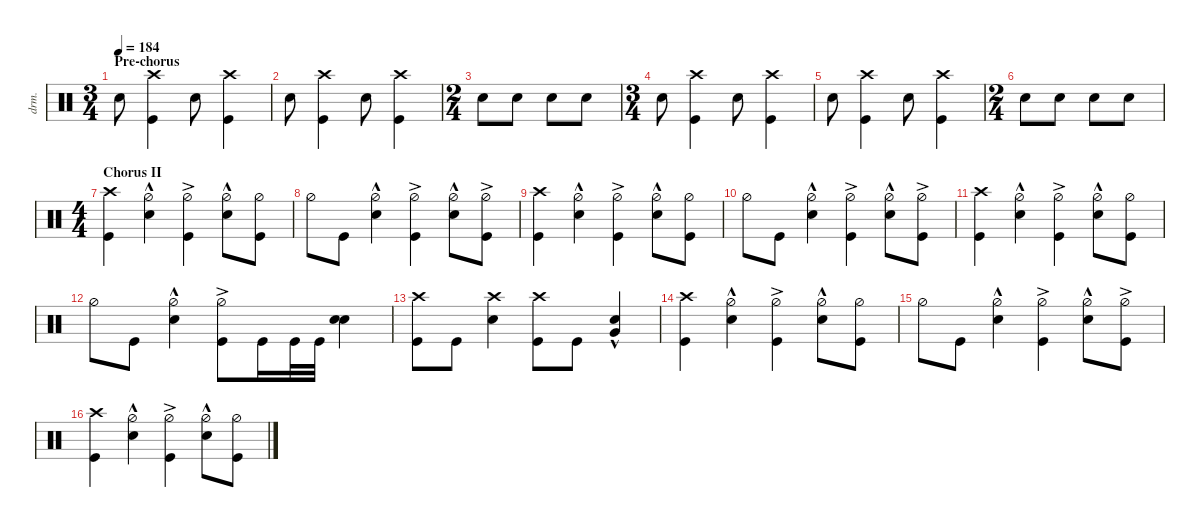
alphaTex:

\defaultSystemsLayout 4
\hideDynamics
\bracketExtendMode nobrackets
\otherSystemsTrackNameOrientation horizontal
\track ("Drums" "drm.") {defaultSystemsLayout 4 multiBarRest instrument percussion}
\staff {score}
\articulation defaults
\ts (3 4)
\section ("" "Pre-chorus")
\tempo 184
\clef neutral
\ks c "Snare (hit) 2".8{dy f}
("Crash high (hit)" "Kick (hit)").4 "Snare (hit) 2".8 ("Crash high (hit)" "Kick (hit)").4 |
"Snare (hit) 2".8 ("Crash high (hit)" "Kick (hit)").4 "Snare (hit) 2".8 ("Crash high (hit)" "Kick (hit)").4 |
\ts (2 4)
\beaming (8 2 2 2 2)
"Snare (hit) 2".8 "Snare (hit) 2".8 "Snare (hit) 2".8 "Snare (hit) 2".8 |
\ts (3 4)
\beaming (8 2 2 2 2)
"Snare (hit) 2".8 ("Crash high (hit)" "Kick (hit)").4 "Snare (hit) 2".8 ("Crash high (hit)" "Kick (hit)").4 |
"Snare (hit) 2".8 ("Crash high (hit)" "Kick (hit)").4 "Snare (hit) 2".8 ("Crash high (hit)" "Kick (hit)").4 |
\ts (2 4)
\beaming (8 2 2 2 2)
"Snare (hit) 2".8 "Snare (hit) 2".8 "Snare (hit) 2".8 "Snare (hit) 2".8 |
\ts (4 4)
\beaming (8 2 2 2 2)
\section ("" "Chorus II")
("Crash high (hit)" "Kick (hit)").4 ("Hi-Hat (half)"{hac} "Snare (hit) 2").4 ("Hi-Hat (half)"{ac} "Kick (hit)").4 ("Hi-Hat (half)"{hac} "Snare (hit) 2").8 ("Kick (hit)" "Hi-Hat (half)").8 |
"Hi-Hat (half)".8 "Kick (hit)".8 ("Hi-Hat (half)"{hac} "Snare (hit) 2").4 ("Hi-Hat (half)"{ac} "Kick (hit)").4 ("Hi-Hat (half)"{hac} "Snare (hit) 2").8 ("Kick (hit)" "Hi-Hat (half)"{ac}).8 |
("Crash high (hit)" "Kick (hit)").4 ("Hi-Hat (half)"{hac} "Snare (hit) 2").4 ("Hi-Hat (half)"{ac} "Kick (hit)").4 ("Hi-Hat (half)"{hac} "Snare (hit) 2").8 ("Kick (hit)" "Hi-Hat (half)").8 |
"Hi-Hat (half)".8 "Kick (hit)".8 ("Hi-Hat (half)"{hac} "Snare (hit) 2").4 ("Hi-Hat (half)"{ac} "Kick (hit)").4 ("Hi-Hat (half)"{hac} "Snare (hit) 2").8 ("Kick (hit)" "Hi-Hat (half)"{ac}).8 |
("Crash high (hit)" "Kick (hit)").4 ("Hi-Hat (half)"{hac} "Snare (hit) 2").4 ("Hi-Hat (half)"{ac} "Kick (hit)").4 ("Hi-Hat (half)"{hac} "Snare (hit) 2").8 ("Kick (hit)" "Hi-Hat (half)").8 |
"Hi-Hat (half)".8 "Kick (hit)".8 ("Hi-Hat (half)"{hac} "Snare (hit) 2").4 ("Hi-Hat (half)"{ac} "Kick (hit)").8 "Kick (hit)".16 "Kick (hit)".32 "Kick (hit)".32 ("Snare (hit) 2" "Snare (hit) 2").4 |
("Crash high (hit)" "Kick (hit)").8 "Kick (hit)".8 ("Crash high (hit)" "Snare (hit) 2").4 ("Crash high (hit)" "Kick (hit)").8 "Kick (hit)".8 ("Snare (hit) 2" "Very Low Tom (hit)"{hac}).4{dy ff} |
("Crash high (hit)" "Kick (hit)").4{dy f} ("Hi-Hat (half)"{hac} "Snare (hit) 2").4 ("Hi-Hat (half)"{ac} "Kick (hit)").4 ("Hi-Hat (half)"{hac} "Snare (hit) 2").8 ("Kick (hit)" "Hi-Hat (half)").8 |
"Hi-Hat (half)".8 "Kick (hit)".8 ("Hi-Hat (half)"{hac} "Snare (hit) 2").4 ("Hi-Hat (half)"{ac} "Kick (hit)").4 ("Hi-Hat (half)"{hac} "Snare (hit) 2").8 ("Kick (hit)" "Hi-Hat (half)"{ac}).8 |
("Crash high (hit)" "Kick (hit)").4 ("Hi-Hat (half)"{hac} "Snare (hit) 2").4 ("Hi-Hat (half)"{ac} "Kick (hit)").4 ("Hi-Hat (half)"{hac} "Snare (hit) 2").8 ("Kick (hit)" "Hi-Hat (half)").8
